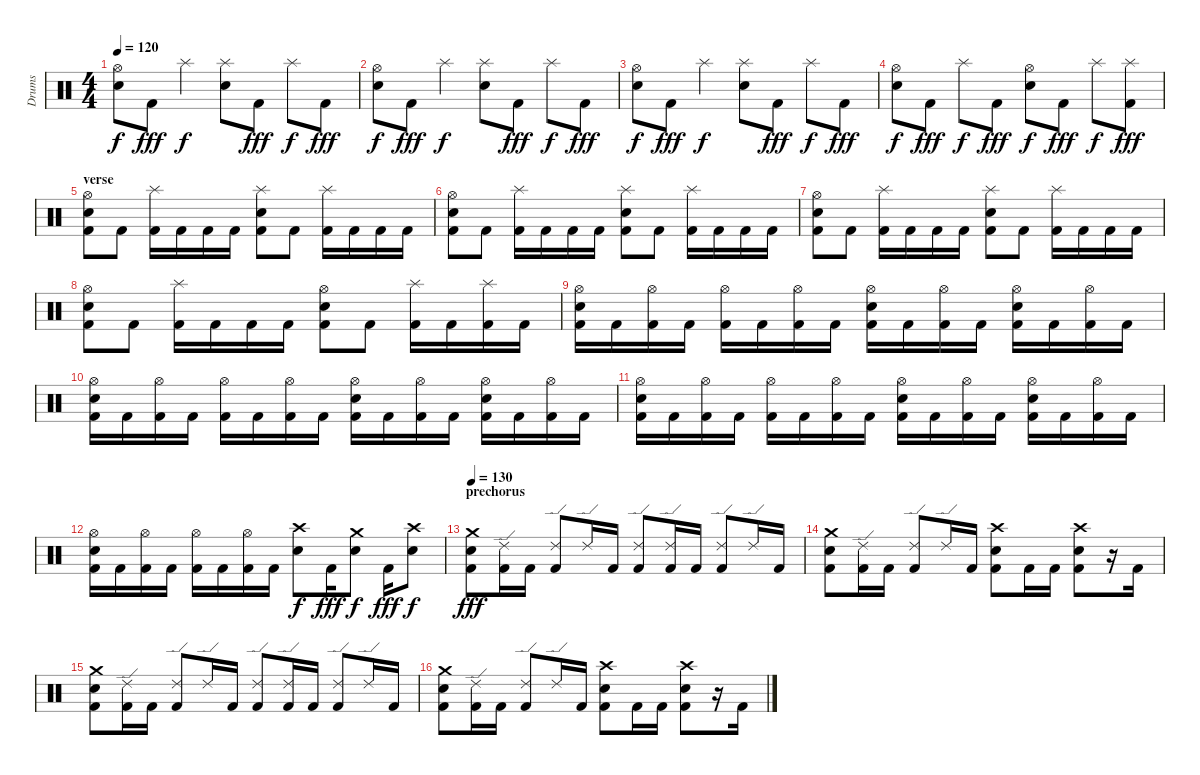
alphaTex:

\track ("Drums" "Drums") {instrument percussion}
\staff {score}
\articulation defaults
\ts (4 4)
\tempo 120
\clef neutral
\ks c
("Hi-Hat (open)" "Electric Snare (hit)").8{dy f} "Kick (hit) 2".8{dy fff} "Splash (hit)".4{dy f} ("Splash (hit)" "Electric Snare (hit)").8 "Kick (hit) 2".8{dy fff} "Splash (hit)".8{dy f} "Kick (hit) 2".8{dy fff} |
("Hi-Hat (open)" "Electric Snare (hit)").8{dy f} "Kick (hit) 2".8{dy fff} "Splash (hit)".4{dy f} ("Splash (hit)" "Electric Snare (hit)").8 "Kick (hit) 2".8{dy fff} "Splash (hit)".8{dy f} "Kick (hit) 2".8{dy fff} |
("Hi-Hat (open)" "Electric Snare (hit)").8{dy f} "Kick (hit) 2".8{dy fff} "Splash (hit)".4{dy f} ("Splash (hit)" "Electric Snare (hit)").8 "Kick (hit) 2".8{dy fff} "Splash (hit)".8{dy f} "Kick (hit) 2".8{dy fff} |
("Hi-Hat (open)" "Electric Snare (hit)").8{dy f} "Kick (hit) 2".8{dy fff} "Splash (hit)".8{dy f} "Kick (hit) 2".8{dy fff} ("Hi-Hat (open)" "Electric Snare (hit)").8{dy f} "Kick (hit) 2".8{dy fff} "Splash (hit)".8{dy f} ("Splash (hit)" "Kick (hit) 2").8{dy fff} |
\section ("" "verse")
("Hi-Hat (open)" "Electric Snare (hit)" "Kick (hit) 2").8 "Kick (hit) 2".8 ("Splash (hit)" "Kick (hit) 2").16 "Kick (hit) 2".16 "Kick (hit) 2".16 "Kick (hit) 2".16 ("Splash (hit)" "Electric Snare (hit)" "Kick (hit) 2").8 "Kick (hit) 2".8 ("Splash (hit)" "Kick (hit) 2").16 "Kick (hit) 2".16 "Kick (hit) 2".16 "Kick (hit) 2".16 |
("Hi-Hat (open)" "Electric Snare (hit)" "Kick (hit) 2").8 "Kick (hit) 2".8 ("Splash (hit)" "Kick (hit) 2").16 "Kick (hit) 2".16 "Kick (hit) 2".16 "Kick (hit) 2".16 ("Splash (hit)" "Electric Snare (hit)" "Kick (hit) 2").8 "Kick (hit) 2".8 ("Splash (hit)" "Kick (hit) 2").16 "Kick (hit) 2".16 "Kick (hit) 2".16 "Kick (hit) 2".16 |
("Hi-Hat (open)" "Electric Snare (hit)" "Kick (hit) 2").8 "Kick (hit) 2".8 ("Splash (hit)" "Kick (hit) 2").16 "Kick (hit) 2".16 "Kick (hit) 2".16 "Kick (hit) 2".16 ("Splash (hit)" "Electric Snare (hit)" "Kick (hit) 2").8 "Kick (hit) 2".8 ("Splash (hit)" "Kick (hit) 2").16 "Kick (hit) 2".16 "Kick (hit) 2".16 "Kick (hit) 2".16 |
("Hi-Hat (open)" "Electric Snare (hit)" "Kick (hit) 2").8 "Kick (hit) 2".8 ("Splash (hit)" "Kick (hit) 2").16 "Kick (hit) 2".16 "Kick (hit) 2".16 "Kick (hit) 2".16 ("Hi-Hat (open)" "Electric Snare (hit)" "Kick (hit) 2").8 "Kick (hit) 2".8 ("Splash (hit)" "Kick (hit) 2").16 "Kick (hit) 2".16 ("Splash (hit)" "Kick (hit) 2").16 "Kick (hit) 2".16 |
("Hi-Hat (open)" "Electric Snare (hit)" "Kick (hit) 2").16 "Kick (hit) 2".16 ("Hi-Hat (open)" "Kick (hit) 2").16 "Kick (hit) 2".16 ("Hi-Hat (open)" "Kick (hit) 2").16 "Kick (hit) 2".16 ("Hi-Hat (open)" "Kick (hit) 2").16 "Kick (hit) 2".16 ("Hi-Hat (open)" "Electric Snare (hit)" "Kick (hit) 2").16 "Kick (hit) 2".16 ("Hi-Hat (open)" "Kick (hit) 2").16 "Kick (hit) 2".16 ("Hi-Hat (open)" "Electric Snare (hit)" "Kick (hit) 2").16 "Kick (hit) 2".16 ("Hi-Hat (open)" "Kick (hit) 2").16 "Kick (hit) 2".16 |
("Hi-Hat (open)" "Electric Snare (hit)" "Kick (hit) 2").16 "Kick (hit) 2".16 ("Hi-Hat (open)" "Kick (hit) 2").16 "Kick (hit) 2".16 ("Hi-Hat (open)" "Kick (hit) 2").16 "Kick (hit) 2".16 ("Hi-Hat (open)" "Kick (hit) 2").16 "Kick (hit) 2".16 ("Hi-Hat (open)" "Electric Snare (hit)" "Kick (hit) 2").16 "Kick (hit) 2".16 ("Hi-Hat (open)" "Kick (hit) 2").16 "Kick (hit) 2".16 ("Hi-Hat (open)" "Electric Snare (hit)" "Kick (hit) 2").16 "Kick (hit) 2".16 ("Hi-Hat (open)" "Kick (hit) 2").16 "Kick (hit) 2".16 |
("Hi-Hat (open)" "Electric Snare (hit)" "Kick (hit) 2").16 "Kick (hit) 2".16 ("Hi-Hat (open)" "Kick (hit) 2").16 "Kick (hit) 2".16 ("Hi-Hat (open)" "Kick (hit) 2").16 "Kick (hit) 2".16 ("Hi-Hat (open)" "Kick (hit) 2").16 "Kick (hit) 2".16 ("Hi-Hat (open)" "Electric Snare (hit)" "Kick (hit) 2").16 "Kick (hit) 2".16 ("Hi-Hat (open)" "Kick (hit) 2").16 "Kick (hit) 2".16 ("Hi-Hat (open)" "Electric Snare (hit)" "Kick (hit) 2").16 "Kick (hit) 2".16 ("Hi-Hat (open)" "Kick (hit) 2").16 "Kick (hit) 2".16 |
("Hi-Hat (open)" "Electric Snare (hit)" "Kick (hit) 2").16 "Kick (hit) 2".16 ("Hi-Hat (open)" "Kick (hit) 2").16 "Kick (hit) 2".16 ("Hi-Hat (open)" "Kick (hit) 2").16 "Kick (hit) 2".16 ("Hi-Hat (open)" "Kick (hit) 2").16 "Kick (hit) 2".16 ("Crash high (hit)" "Electric Snare (hit)").8{dy f} "Kick (hit) 2".16{dy fff} ("Crash medium (hit)" "Electric Snare (hit)").8{dy f} "Kick (hit) 2".16{dy fff} ("Crash high (hit)" "Electric Snare (hit)").8{dy f} |
\section ("" "prechorus")
\tempo 130
("Crash medium (hit)" "Electric Snare (hit)" "Kick (hit) 2").8{dy fff} ("Ride (edge) 2" "Kick (hit) 2").16 "Kick (hit) 2".16 ("Ride (edge) 2" "Kick (hit) 2").8 "Ride (edge) 2".16 "Kick (hit) 2".16 ("Ride (edge) 2" "Kick (hit) 2").8 ("Ride (edge) 2" "Kick (hit) 2").16 "Kick (hit) 2".16 ("Ride (edge) 2" "Kick (hit) 2").8 "Ride (edge) 2".16 "Kick (hit) 2".16 |
("Crash medium (hit)" "Electric Snare (hit)" "Kick (hit) 2").8 ("Ride (edge) 2" "Kick (hit) 2").16 "Kick (hit) 2".16 ("Ride (edge) 2" "Kick (hit) 2").8 "Ride (edge) 2".16 "Kick (hit) 2".16 ("Crash high (hit)" "Electric Snare (hit)" "Kick (hit) 2").8 "Kick (hit) 2".16 "Kick (hit) 2".16 ("Crash high (hit)" "Electric Snare (hit)" "Kick (hit) 2").8 r.16 "Kick (hit) 2".16 |
("Crash medium (hit)" "Electric Snare (hit)" "Kick (hit) 2").8 ("Ride (edge) 2" "Kick (hit) 2").16 "Kick (hit) 2".16 ("Ride (edge) 2" "Kick (hit) 2").8 "Ride (edge) 2".16 "Kick (hit) 2".16 ("Ride (edge) 2" "Kick (hit) 2").8 ("Ride (edge) 2" "Kick (hit) 2").16 "Kick (hit) 2".16 ("Ride (edge) 2" "Kick (hit) 2").8 "Ride (edge) 2".16 "Kick (hit) 2".16 |
("Crash medium (hit)" "Electric Snare (hit)" "Kick (hit) 2").8 ("Ride (edge) 2" "Kick (hit) 2").16 "Kick (hit) 2".16 ("Ride (edge) 2" "Kick (hit) 2").8 "Ride (edge) 2".16 "Kick (hit) 2".16 ("Crash high (hit)" "Electric Snare (hit)" "Kick (hit) 2").8 "Kick (hit) 2".16 "Kick (hit) 2".16 ("Crash high (hit)" "Electric Snare (hit)" "Kick (hit) 2").8 r.16 "Kick (hit) 2".16
